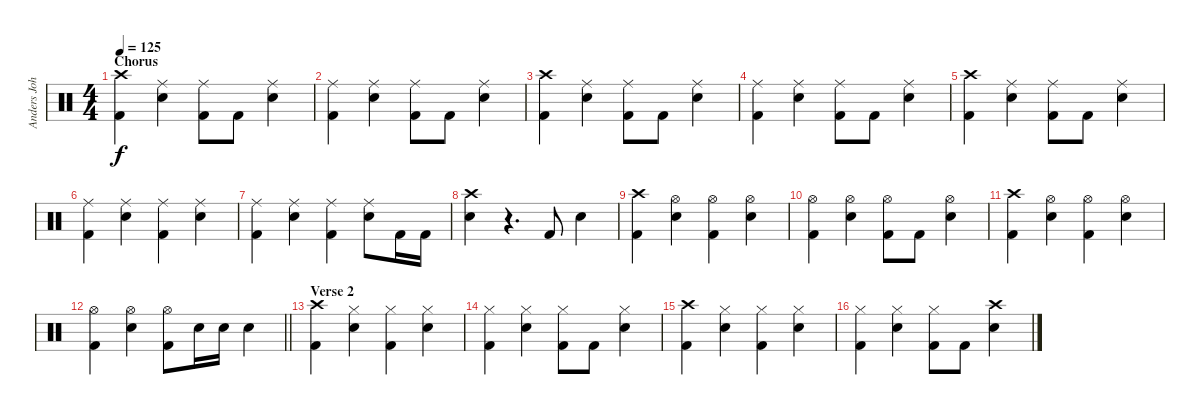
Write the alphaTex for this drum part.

\track ("Anders Johansson" "Anders Joh") {instrument percussion}
\staff {score}
\articulation defaults
\ts (4 4)
\section ("" "Chorus")
\tempo 125
\clef neutral
\ks c
("Kick (hit) 2" "Crash high (hit)").4{dy f} ("Electric Snare (hit)" "Ride (middle)").4 ("Kick (hit) 2" "Ride (middle)").8 "Kick (hit) 2".8 ("Electric Snare (hit)" "Ride (middle)").4 |
("Kick (hit) 2" "Ride (middle)").4 ("Electric Snare (hit)" "Ride (middle)").4 ("Kick (hit) 2" "Ride (middle)").8 "Kick (hit) 2".8 ("Ride (middle)" "Electric Snare (hit)").4 |
("Kick (hit) 2" "Crash high (hit)").4 ("Electric Snare (hit)" "Ride (middle)").4 ("Kick (hit) 2" "Ride (middle)").8 "Kick (hit) 2".8 ("Ride (middle)" "Electric Snare (hit)").4 |
("Kick (hit) 2" "Ride (middle)").4 ("Electric Snare (hit)" "Ride (middle)").4 ("Kick (hit) 2" "Ride (middle)").8 "Kick (hit) 2".8 ("Electric Snare (hit)" "Ride (middle)").4 |
("Kick (hit) 2" "Crash high (hit)").4 ("Electric Snare (hit)" "Ride (middle)").4 ("Kick (hit) 2" "Ride (middle)").8 "Kick (hit) 2".8 ("Electric Snare (hit)" "Ride (middle)").4 |
("Kick (hit) 2" "Ride (middle)").4 ("Electric Snare (hit)" "Ride (middle)").4 ("Kick (hit) 2" "Ride (middle)").4 ("Electric Snare (hit)" "Ride (middle)").4 |
("Kick (hit) 2" "Ride (middle)").4 ("Electric Snare (hit)" "Ride (middle)").4 ("Kick (hit) 2" "Ride (middle)").4 ("Electric Snare (hit)" "Ride (middle)").8 "Kick (hit) 2".16 "Kick (hit) 2".16 |
("Crash high (hit)" "Electric Snare (hit)").4 r.4{d} "Kick (hit) 2".8 "Electric Snare (hit)".4 |
("Kick (hit) 2" "Crash high (hit)").4 ("Electric Snare (hit)" "Hi-Hat (open)").4 ("Kick (hit) 2" "Hi-Hat (open)").4 ("Electric Snare (hit)" "Hi-Hat (open)").4 |
("Kick (hit) 2" "Hi-Hat (open)").4 ("Electric Snare (hit)" "Hi-Hat (open)").4 ("Kick (hit) 2" "Hi-Hat (open)").8 "Kick (hit) 2".8 ("Hi-Hat (open)" "Electric Snare (hit)").4 |
("Kick (hit) 2" "Crash high (hit)").4 ("Electric Snare (hit)" "Hi-Hat (open)").4 ("Kick (hit) 2" "Hi-Hat (open)").4 ("Electric Snare (hit)" "Hi-Hat (open)").4 |
\barLineRight lightlight
("Kick (hit) 2" "Hi-Hat (open)").4 ("Electric Snare (hit)" "Hi-Hat (open)").4 ("Kick (hit) 2" "Hi-Hat (open)").8 "Electric Snare (hit)".16 "Electric Snare (hit)".16 "Electric Snare (hit)".4 |
\section ("" "Verse 2")
("Kick (hit) 2" "Crash high (hit)").4 ("Electric Snare (hit)" "Hi-Hat (closed)").4 ("Kick (hit) 2" "Hi-Hat (closed)").4 ("Electric Snare (hit)" "Hi-Hat (closed)").4 |
("Kick (hit) 2" "Hi-Hat (closed)").4 ("Electric Snare (hit)" "Hi-Hat (closed)").4 ("Kick (hit) 2" "Hi-Hat (closed)").8 "Kick (hit) 2".8 ("Hi-Hat (closed)" "Electric Snare (hit)").4 |
("Kick (hit) 2" "Crash high (hit)").4 ("Electric Snare (hit)" "Hi-Hat (closed)").4 ("Kick (hit) 2" "Hi-Hat (closed)").4 ("Electric Snare (hit)" "Hi-Hat (closed)").4 |
("Kick (hit) 2" "Hi-Hat (closed)").4 ("Electric Snare (hit)" "Hi-Hat (closed)").4 ("Kick (hit) 2" "Hi-Hat (closed)").8 "Kick (hit) 2".8 ("Crash high (hit)" "Electric Snare (hit)").4
